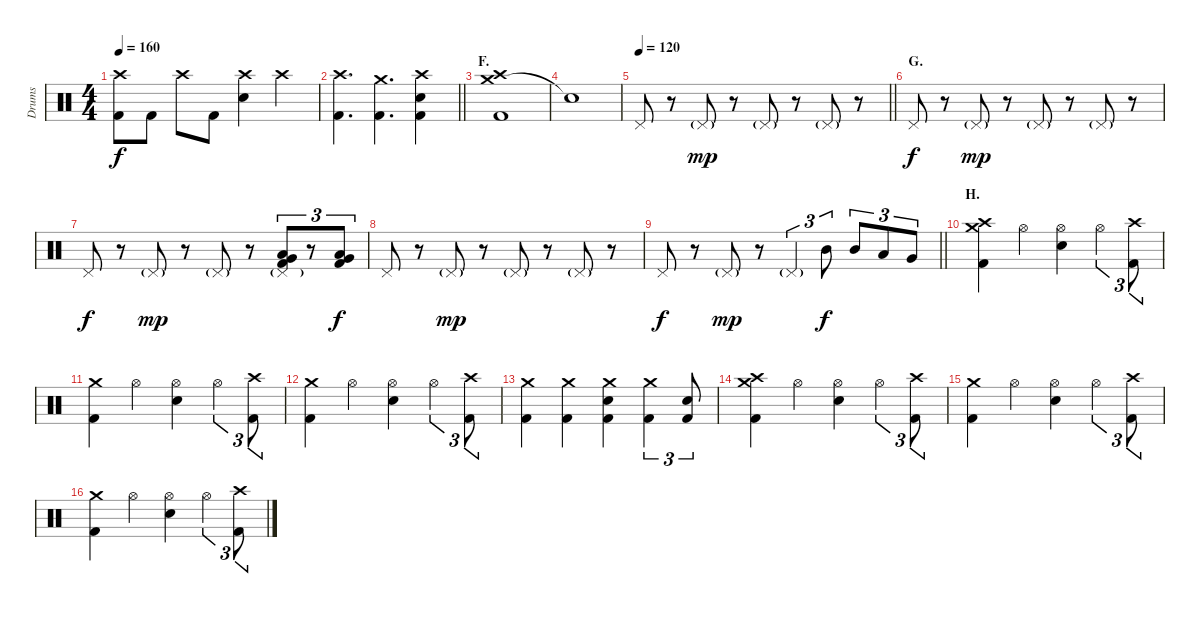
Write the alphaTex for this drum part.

\track ("Drums" "Drums") {instrument percussion}
\staff {score}
\articulation defaults
\ts (4 4)
\tempo 160
\clef neutral
\ks c
("Crash high (hit)" "Kick (hit) 2").8{dy f} "Kick (hit) 2".8 "Crash high (hit)".8 "Kick (hit) 2".8 ("Crash high (hit)" "Electric Snare (hit)").4 "Crash high (hit)".4 |
\barLineRight lightlight
("Crash high (hit)" "Kick (hit) 2").4{d} ("Crash medium (hit)" "Kick (hit) 2").4{d} ("Crash high (hit)" "Electric Snare (hit)" "Kick (hit) 2").4 |
\section ("" "F.")
("Crash medium (hit)" "Crash high (hit)" "Kick (hit) 2").1 |
"Snare (hit)"{t}.1 |
\tempo 120
\barLineRight lightlight "Pedal Hi-Hat (hit)".8
r.8 "Pedal Hi-Hat (hit)"{g}.8{dy mp} r.8 "Pedal Hi-Hat (hit)"{g}.8 r.8 "Pedal Hi-Hat (hit)"{g}.8 r.8 |
\section ("" "G.")
"Pedal Hi-Hat (hit)".8{dy f} r.8 "Pedal Hi-Hat (hit)"{g}.8{dy mp} r.8 "Pedal Hi-Hat (hit)"{g}.8 r.8 "Pedal Hi-Hat (hit)"{g}.8 r.8 |
"Pedal Hi-Hat (hit)".8{dy f} r.8 "Pedal Hi-Hat (hit)"{g}.8{dy mp} r.8 "Pedal Hi-Hat (hit)"{g}.8 r.8 ("Pedal Hi-Hat (hit)"{g} "Very Low Tom (hit)" "Low Floor Tom (hit)" "Kick (hit) 2").8{tu (3 2)} r.8{tu (3 2)} ("Very Low Tom (hit)" "Low Floor Tom (hit)" "Kick (hit) 2").8{tu (3 2) dy f} |
"Pedal Hi-Hat (hit)".8 r.8 "Pedal Hi-Hat (hit)"{g}.8{dy mp} r.8 "Pedal Hi-Hat (hit)"{g}.8 r.8 "Pedal Hi-Hat (hit)"{g}.8 r.8 |
\barLineRight lightlight "Pedal Hi-Hat (hit)".8{dy f}
r.8 "Pedal Hi-Hat (hit)"{g}.8{dy mp} r.8 "Pedal Hi-Hat (hit)"{g}.4{tu (3 2)} "Mid Tom (hit)".8{tu (3 2) dy f} "Mid Tom (hit)".8{tu (3 2)} "Low Tom (hit)".8{tu (3 2)} "Very Low Tom (hit)".8{tu (3 2)} |
\section ("" "H.")
("Crash medium (hit)" "Crash high (hit)" "Kick (hit) 2").4 "Hi-Hat (open)".4 ("Hi-Hat (open)" "Electric Snare (hit)").4 "Hi-Hat (open)".4{tu (3 2)} ("Crash high (hit)" "Kick (hit) 2").8{tu (3 2)} |
("Crash medium (hit)" "Kick (hit) 2").4 "Hi-Hat (open)".4 ("Hi-Hat (open)" "Electric Snare (hit)").4 "Hi-Hat (open)".4{tu (3 2)} ("Crash high (hit)" "Kick (hit) 2").8{tu (3 2)} |
("Crash medium (hit)" "Kick (hit) 2").4 "Hi-Hat (open)".4 ("Hi-Hat (open)" "Electric Snare (hit)").4 "Hi-Hat (open)".4{tu (3 2)} ("Crash high (hit)" "Kick (hit) 2").8{tu (3 2)} |
("Crash medium (hit)" "Kick (hit) 2").4 ("Crash medium (hit)" "Kick (hit) 2").4 ("Crash medium (hit)" "Electric Snare (hit)" "Kick (hit) 2").4 ("Crash medium (hit)" "Kick (hit) 2").4{tu (3 2)} ("Electric Snare (hit)" "Kick (hit) 2").8{tu (3 2)} |
("Crash medium (hit)" "Crash high (hit)" "Kick (hit) 2").4 "Hi-Hat (open)".4 ("Hi-Hat (open)" "Electric Snare (hit)").4 "Hi-Hat (open)".4{tu (3 2)} ("Crash high (hit)" "Kick (hit) 2").8{tu (3 2)} |
("Crash medium (hit)" "Kick (hit) 2").4 "Hi-Hat (open)".4 ("Hi-Hat (open)" "Electric Snare (hit)").4 "Hi-Hat (open)".4{tu (3 2)} ("Crash high (hit)" "Kick (hit) 2").8{tu (3 2)} |
("Crash medium (hit)" "Kick (hit) 2").4 "Hi-Hat (open)".4 ("Hi-Hat (open)" "Electric Snare (hit)").4 "Hi-Hat (open)".4{tu (3 2)} ("Crash high (hit)" "Kick (hit) 2").8{tu (3 2)}
